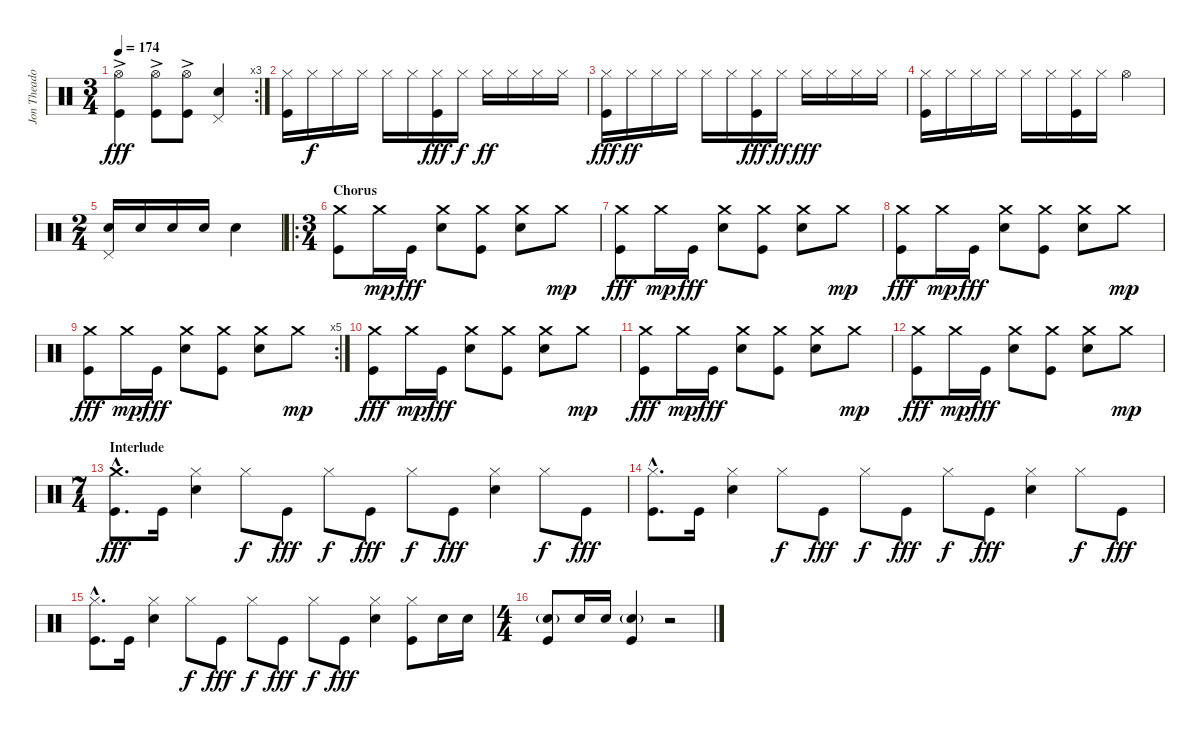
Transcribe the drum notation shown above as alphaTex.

\track ("Jon Theadore - Drums" "Jon Theado") {instrument percussion}
\staff {score}
\articulation defaults
\rc 3
\ts (3 4)
\tempo 174
\clef neutral
\ks c
("Hi-Hat (open)"{ac} "Kick (hit)").4{dy fff} ("Hi-Hat (open)"{ac} "Kick (hit)").8 ("Hi-Hat (open)"{ac} "Kick (hit)").8 ("Pedal Hi-Hat (hit)" "Snare (hit) 2").4 |
("Hi-Hat (closed)" "Kick (hit)").16 "Hi-Hat (closed)".16{dy f} "Hi-Hat (closed)".16 "Hi-Hat (closed)".16 "Hi-Hat (closed)".16 "Hi-Hat (closed)".16 ("Hi-Hat (closed)" "Kick (hit)").16{dy fff} "Hi-Hat (closed)".16{dy f} "Hi-Hat (closed)".16{dy ff} "Hi-Hat (closed)".16 "Hi-Hat (closed)".16 "Hi-Hat (closed)".16 |
("Hi-Hat (closed)" "Kick (hit)").16{dy fff} "Hi-Hat (closed)".16{dy ff} "Hi-Hat (closed)".16 "Hi-Hat (closed)".16 "Hi-Hat (closed)".16 "Hi-Hat (closed)".16 ("Hi-Hat (closed)" "Kick (hit)").16{dy fff} "Hi-Hat (closed)".16{dy ff} "Hi-Hat (closed)".16{dy fff} "Hi-Hat (closed)".16 "Hi-Hat (closed)".16 "Hi-Hat (closed)".16 |
("Hi-Hat (closed)" "Kick (hit)").16 "Hi-Hat (closed)".16 "Hi-Hat (closed)".16 "Hi-Hat (closed)".16 "Hi-Hat (closed)".16 "Hi-Hat (closed)".16 ("Hi-Hat (closed)" "Kick (hit)").16 "Hi-Hat (closed)".16 "Hi-Hat (open)".4 |
\ts (2 4)
("Pedal Hi-Hat (hit)" "Snare (hit) 2").16 "Snare (hit) 2".16 "Snare (hit) 2".16 "Snare (hit) 2".16 "Snare (hit) 2".4 |
\ro
\ts (3 4)
\section ("" "Chorus")
("Crash medium (hit)" "Kick (hit)").8 "Crash medium (hit)".16{dy mp} "Kick (hit)".16{dy fff} ("Crash medium (hit)" "Snare (hit) 2").8 ("Crash medium (hit)" "Kick (hit)").8 ("Crash medium (hit)" "Snare (hit) 2").8 "Crash medium (hit)".8{dy mp} |
("Crash medium (hit)" "Kick (hit)").8{dy fff} "Crash medium (hit)".16{dy mp} "Kick (hit)".16{dy fff} ("Crash medium (hit)" "Snare (hit) 2").8 ("Crash medium (hit)" "Kick (hit)").8 ("Crash medium (hit)" "Snare (hit) 2").8 "Crash medium (hit)".8{dy mp} |
("Crash medium (hit)" "Kick (hit)").8{dy fff} "Crash medium (hit)".16{dy mp} "Kick (hit)".16{dy fff} ("Crash medium (hit)" "Snare (hit) 2").8 ("Crash medium (hit)" "Kick (hit)").8 ("Crash medium (hit)" "Snare (hit) 2").8 "Crash medium (hit)".8{dy mp} |
\rc 5
("Crash medium (hit)" "Kick (hit)").8{dy fff} "Crash medium (hit)".16{dy mp} "Kick (hit)".16{dy fff} ("Crash medium (hit)" "Snare (hit) 2").8 ("Crash medium (hit)" "Kick (hit)").8 ("Crash medium (hit)" "Snare (hit) 2").8 "Crash medium (hit)".8{dy mp} |
("Crash medium (hit)" "Kick (hit)").8{dy fff} "Crash medium (hit)".16{dy mp} "Kick (hit)".16{dy fff} ("Crash medium (hit)" "Snare (hit) 2").8 ("Crash medium (hit)" "Kick (hit)").8 ("Crash medium (hit)" "Snare (hit) 2").8 "Crash medium (hit)".8{dy mp} |
("Crash medium (hit)" "Kick (hit)").8{dy fff} "Crash medium (hit)".16{dy mp} "Kick (hit)".16{dy fff} ("Crash medium (hit)" "Snare (hit) 2").8 ("Crash medium (hit)" "Kick (hit)").8 ("Crash medium (hit)" "Snare (hit) 2").8 "Crash medium (hit)".8{dy mp} |
("Crash medium (hit)" "Kick (hit)").8{dy fff} "Crash medium (hit)".16{dy mp} "Kick (hit)".16{dy fff} ("Crash medium (hit)" "Snare (hit) 2").8 ("Crash medium (hit)" "Kick (hit)").8 ("Crash medium (hit)" "Snare (hit) 2").8 "Crash medium (hit)".8{dy mp} |
\ts (7 4)
\section ("" "Interlude")
("Crash medium (hit)"{hac} "Kick (hit)"{hac}).8{d dy fff} "Kick (hit)".16 ("Hi-Hat (closed)" "Snare (hit) 2").4 "Hi-Hat (closed)".8{dy f} "Kick (hit)".8{dy fff} "Hi-Hat (closed)".8{dy f} "Kick (hit)".8{dy fff} "Hi-Hat (closed)".8{dy f} "Kick (hit)".8{dy fff} ("Hi-Hat (closed)" "Snare (hit) 2").4 "Hi-Hat (closed)".8{dy f} "Kick (hit)".8{dy fff} |
("Hi-Hat (closed)"{hac} "Kick (hit)"{hac}).8{d} "Kick (hit)".16 ("Hi-Hat (closed)" "Snare (hit) 2").4 "Hi-Hat (closed)".8{dy f} "Kick (hit)".8{dy fff} "Hi-Hat (closed)".8{dy f} "Kick (hit)".8{dy fff} "Hi-Hat (closed)".8{dy f} "Kick (hit)".8{dy fff} ("Hi-Hat (closed)" "Snare (hit) 2").4 "Hi-Hat (closed)".8{dy f} "Kick (hit)".8{dy fff} |
("Hi-Hat (closed)"{hac} "Kick (hit)"{hac}).8{d} "Kick (hit)".16 ("Hi-Hat (closed)" "Snare (hit) 2").4 "Hi-Hat (closed)".8{dy f} "Kick (hit)".8{dy fff} "Hi-Hat (closed)".8{dy f} "Kick (hit)".8{dy fff} "Hi-Hat (closed)".8{dy f} "Kick (hit)".8{dy fff} ("Hi-Hat (closed)" "Snare (hit) 2").4 ("Hi-Hat (closed)" "Kick (hit)").8 "Snare (hit) 2".16 "Snare (hit) 2".16 |
\ts (4 4)
("Snare (hit) 2"{g} "Kick (hit)").8 "Snare (hit) 2".16 "Snare (hit) 2".16 ("Snare (hit) 2"{g} "Kick (hit)").4 r.2
